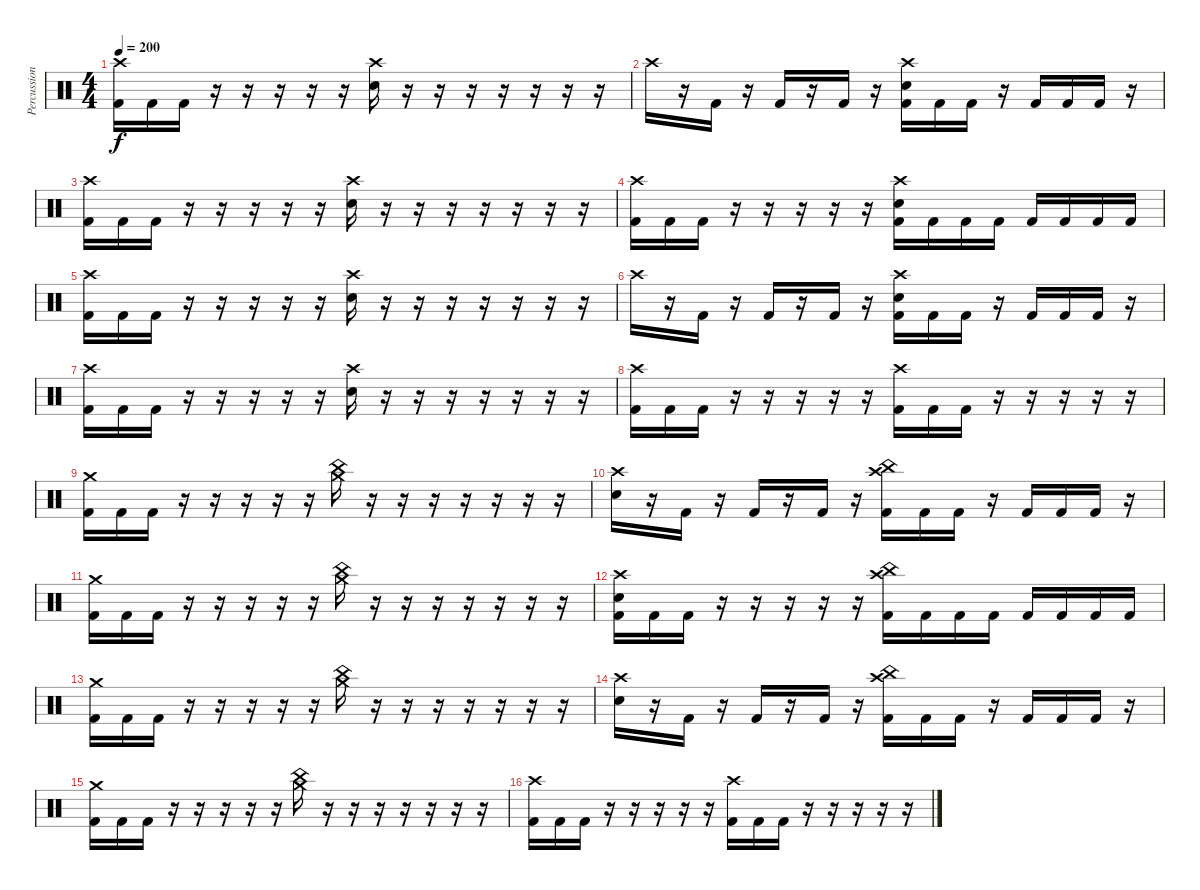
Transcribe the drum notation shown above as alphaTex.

\track ("Percussion" "Percussion") {instrument percussion}
\staff {score}
\articulation defaults
\ts (4 4)
\tempo 200
\clef neutral
\ks c
("Crash high (hit)" "Kick (hit) 2").16{dy f} "Kick (hit) 2".16 "Kick (hit) 2".16 r.16 r.16 r.16 r.16 r.16 ("Crash high (hit)" "Electric Snare (hit)").16 r.16 r.16 r.16 r.16 r.16 r.16 r.16 |
"Crash high (hit)".16 r.16 "Kick (hit) 2".16 r.16 "Kick (hit) 2".16 r.16 "Kick (hit) 2".16 r.16 ("Crash high (hit)" "Electric Snare (hit)" "Kick (hit) 2").16 "Kick (hit) 2".16 "Kick (hit) 2".16 r.16 "Kick (hit) 2".16 "Kick (hit) 2".16 "Kick (hit) 2".16 r.16 |
("Crash high (hit)" "Kick (hit) 2").16 "Kick (hit) 2".16 "Kick (hit) 2".16 r.16 r.16 r.16 r.16 r.16 ("Crash high (hit)" "Electric Snare (hit)").16 r.16 r.16 r.16 r.16 r.16 r.16 r.16 |
("Crash high (hit)" "Kick (hit) 2").16 "Kick (hit) 2".16 "Kick (hit) 2".16 r.16 r.16 r.16 r.16 r.16 ("Crash high (hit)" "Electric Snare (hit)" "Kick (hit) 2").16 "Kick (hit) 2".16 "Kick (hit) 2".16 "Kick (hit) 2".16 "Kick (hit) 2".16 "Kick (hit) 2".16 "Kick (hit) 2".16 "Kick (hit) 2".16 |
("Crash high (hit)" "Kick (hit) 2").16 "Kick (hit) 2".16 "Kick (hit) 2".16 r.16 r.16 r.16 r.16 r.16 ("Crash high (hit)" "Electric Snare (hit)").16 r.16 r.16 r.16 r.16 r.16 r.16 r.16 |
"Crash high (hit)".16 r.16 "Kick (hit) 2".16 r.16 "Kick (hit) 2".16 r.16 "Kick (hit) 2".16 r.16 ("Crash high (hit)" "Electric Snare (hit)" "Kick (hit) 2").16 "Kick (hit) 2".16 "Kick (hit) 2".16 r.16 "Kick (hit) 2".16 "Kick (hit) 2".16 "Kick (hit) 2".16 r.16 |
("Crash high (hit)" "Kick (hit) 2").16 "Kick (hit) 2".16 "Kick (hit) 2".16 r.16 r.16 r.16 r.16 r.16 ("Crash high (hit)" "Electric Snare (hit)").16 r.16 r.16 r.16 r.16 r.16 r.16 r.16 |
("Crash high (hit)" "Kick (hit) 2").16 "Kick (hit) 2".16 "Kick (hit) 2".16 r.16 r.16 r.16 r.16 r.16 ("Crash high (hit)" "Kick (hit) 2").16 "Kick (hit) 2".16 "Kick (hit) 2".16 r.16 r.16 r.16 r.16 r.16 |
("Crash medium (hit)" "Kick (hit) 2").16 "Kick (hit) 2".16 "Kick (hit) 2".16 r.16 r.16 r.16 r.16 r.16 ("China (hit)" "Crash medium (hit)").16 r.16 r.16 r.16 r.16 r.16 r.16 r.16 |
("Crash high (hit)" "Electric Snare (hit)").16 r.16 "Kick (hit) 2".16 r.16 "Kick (hit) 2".16 r.16 "Kick (hit) 2".16 r.16 ("Crash high (hit)" "China (hit)" "Kick (hit) 2").16 "Kick (hit) 2".16 "Kick (hit) 2".16 r.16 "Kick (hit) 2".16 "Kick (hit) 2".16 "Kick (hit) 2".16 r.16 |
("Crash medium (hit)" "Kick (hit) 2").16 "Kick (hit) 2".16 "Kick (hit) 2".16 r.16 r.16 r.16 r.16 r.16 ("China (hit)" "Crash medium (hit)").16 r.16 r.16 r.16 r.16 r.16 r.16 r.16 |
("Crash high (hit)" "Electric Snare (hit)" "Kick (hit) 2").16 "Kick (hit) 2".16 "Kick (hit) 2".16 r.16 r.16 r.16 r.16 r.16 ("Crash high (hit)" "China (hit)" "Kick (hit) 2").16 "Kick (hit) 2".16 "Kick (hit) 2".16 "Kick (hit) 2".16 "Kick (hit) 2".16 "Kick (hit) 2".16 "Kick (hit) 2".16 "Kick (hit) 2".16 |
("Crash medium (hit)" "Kick (hit) 2").16 "Kick (hit) 2".16 "Kick (hit) 2".16 r.16 r.16 r.16 r.16 r.16 ("China (hit)" "Crash medium (hit)").16 r.16 r.16 r.16 r.16 r.16 r.16 r.16 |
("Crash high (hit)" "Electric Snare (hit)").16 r.16 "Kick (hit) 2".16 r.16 "Kick (hit) 2".16 r.16 "Kick (hit) 2".16 r.16 ("Crash high (hit)" "China (hit)" "Kick (hit) 2").16 "Kick (hit) 2".16 "Kick (hit) 2".16 r.16 "Kick (hit) 2".16 "Kick (hit) 2".16 "Kick (hit) 2".16 r.16 |
("Crash medium (hit)" "Kick (hit) 2").16 "Kick (hit) 2".16 "Kick (hit) 2".16 r.16 r.16 r.16 r.16 r.16 ("China (hit)" "Crash medium (hit)").16 r.16 r.16 r.16 r.16 r.16 r.16 r.16 |
("Crash high (hit)" "Kick (hit) 2").16 "Kick (hit) 2".16 "Kick (hit) 2".16 r.16 r.16 r.16 r.16 r.16 ("Crash high (hit)" "Kick (hit) 2").16 "Kick (hit) 2".16 "Kick (hit) 2".16 r.16 r.16 r.16 r.16 r.16
